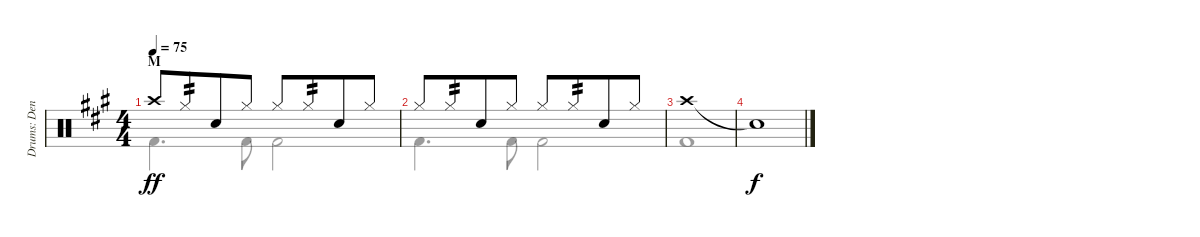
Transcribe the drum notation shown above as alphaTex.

\track ("Drums: Denny" "Drums: Den") {instrument percussion}
\staff {score}
\articulation defaults
\voice
\ts (4 4)
\section ("" "M")
\tempo 75
\clef neutral
\ks a "Crash high (hit)".8{dy ff} "Hi-Hat (closed)".8{tp 2 beam merge} "Snare (hit) 2".8 "Hi-Hat (closed)".8 "Hi-Hat (closed)".8 "Hi-Hat (closed)".8{tp 2 beam merge} "Snare (hit) 2".8 "Hi-Hat (closed)".8
|
"Hi-Hat (closed)".8 "Hi-Hat (closed)".8{tp 2 beam merge} "Snare (hit) 2".8 "Hi-Hat (closed)".8 "Hi-Hat (closed)".8 "Hi-Hat (closed)".8{tp 2 beam merge} "Snare (hit) 2".8 "Hi-Hat (closed)".8 |
"Crash high (hit)".1{volume 7} |
"Snare (hit)"{t}.1{dy f}
\voice
\clef neutral
\ottava regular
\simile none
\ks a "Kick (hit) 2".4{d dy ff} "Kick (hit) 2".8 "Kick (hit) 2".2
|
"Kick (hit) 2".4{d} "Kick (hit) 2".8 "Kick (hit) 2".2 |
"Kick (hit) 2".1 |
